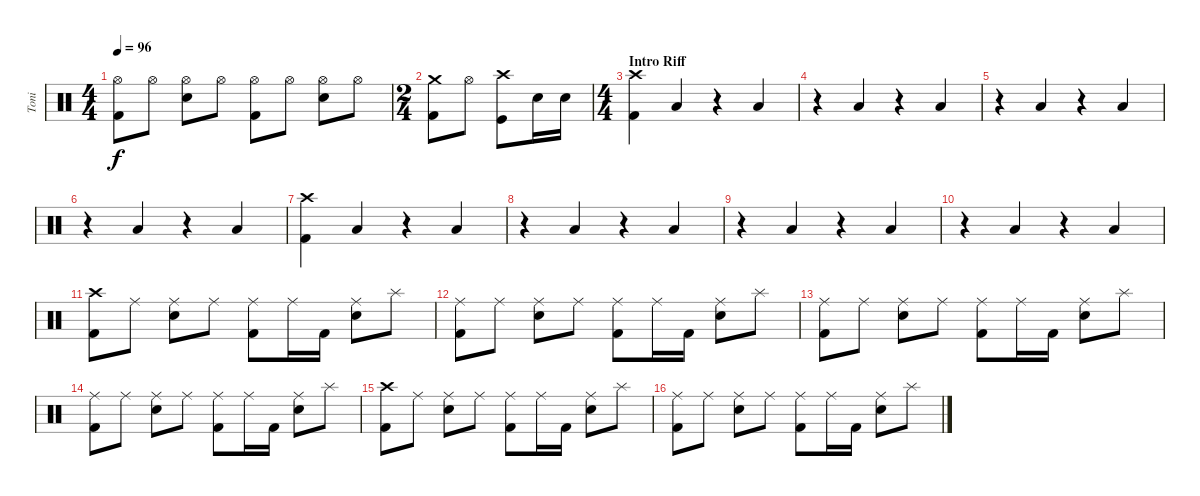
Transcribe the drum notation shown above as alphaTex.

\track ("Toni" "Toni") {instrument percussion}
\staff {score}
\articulation defaults
\ts (4 4)
\tempo 96
\clef neutral
\ks c
("Hi-Hat (open)" "Kick (hit) 2").8{dy f} "Hi-Hat (open)".8 ("Hi-Hat (open)" "Electric Snare (hit)").8 "Hi-Hat (open)".8 ("Hi-Hat (open)" "Kick (hit) 2").8 "Hi-Hat (open)".8 ("Hi-Hat (open)" "Electric Snare (hit)").8 "Hi-Hat (open)".8 |
\ts (2 4)
("Crash medium (hit)" "Kick (hit) 2").8 "Hi-Hat (open)".8 ("Crash high (hit)" "Kick (hit)").8 "Electric Snare (hit)".16 "Electric Snare (hit)".16 |
\ts (4 4)
\section ("" "Intro Riff")
("Crash high (hit)" "Kick (hit) 2").4 "Low Tom (hit)".4 r.4 "Low Tom (hit)".4 |
r.4 "Low Tom (hit)".4 r.4 "Low Tom (hit)".4 |
r.4 "Low Tom (hit)".4 r.4 "Low Tom (hit)".4 |
r.4 "Low Tom (hit)".4 r.4 "Low Tom (hit)".4 |
("Crash high (hit)" "Kick (hit) 2").4 "Low Tom (hit)".4 r.4 "Low Tom (hit)".4 |
r.4 "Low Tom (hit)".4 r.4 "Low Tom (hit)".4 |
r.4 "Low Tom (hit)".4 r.4 "Low Tom (hit)".4 |
r.4 "Low Tom (hit)".4 r.4 "Low Tom (hit)".4 |
("Crash high (hit)" "Kick (hit) 2").8 "Ride (middle)".8 ("Ride (middle)" "Electric Snare (hit)").8 "Ride (middle)".8 ("Ride (middle)" "Kick (hit) 2").8 "Ride (middle)".16 "Kick (hit) 2".16 ("Ride (middle)" "Electric Snare (hit)").8 "Splash (hit)".8 |
("Ride (middle)" "Kick (hit) 2").8 "Ride (middle)".8 ("Ride (middle)" "Electric Snare (hit)").8 "Ride (middle)".8 ("Ride (middle)" "Kick (hit) 2").8 "Ride (middle)".16 "Kick (hit) 2".16 ("Ride (middle)" "Electric Snare (hit)").8 "Splash (hit)".8 |
("Ride (middle)" "Kick (hit) 2").8 "Ride (middle)".8 ("Ride (middle)" "Electric Snare (hit)").8 "Ride (middle)".8 ("Ride (middle)" "Kick (hit) 2").8 "Ride (middle)".16 "Kick (hit) 2".16 ("Ride (middle)" "Electric Snare (hit)").8 "Splash (hit)".8 |
("Ride (middle)" "Kick (hit) 2").8 "Ride (middle)".8 ("Ride (middle)" "Electric Snare (hit)").8 "Ride (middle)".8 ("Ride (middle)" "Kick (hit) 2").8 "Ride (middle)".16 "Kick (hit) 2".16 ("Ride (middle)" "Electric Snare (hit)").8 "Splash (hit)".8 |
("Crash high (hit)" "Kick (hit) 2").8 "Ride (middle)".8 ("Ride (middle)" "Electric Snare (hit)").8 "Ride (middle)".8 ("Ride (middle)" "Kick (hit) 2").8 "Ride (middle)".16 "Kick (hit) 2".16 ("Ride (middle)" "Electric Snare (hit)").8 "Splash (hit)".8 |
("Ride (middle)" "Kick (hit) 2").8 "Ride (middle)".8 ("Ride (middle)" "Electric Snare (hit)").8 "Ride (middle)".8 ("Ride (middle)" "Kick (hit) 2").8 "Ride (middle)".16 "Kick (hit) 2".16 ("Ride (middle)" "Electric Snare (hit)").8 "Splash (hit)".8
